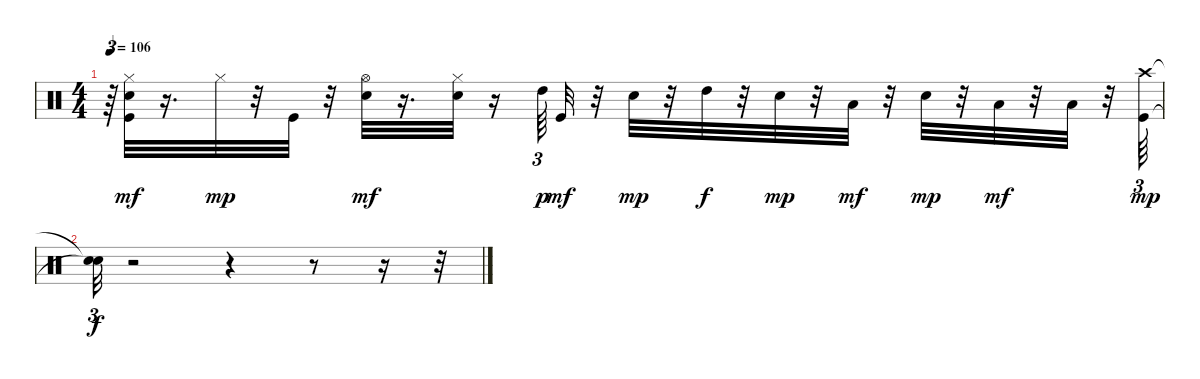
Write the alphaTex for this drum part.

\track "" {instrument percussion}
\staff {score}
\articulation defaults
\ts (4 4)
\tempo 106
\clef neutral
\ks c
r.64{tu (3 2) dy mf} ("Kick (hit)" "Snare (hit) 2" "Hi-Hat (closed)").32 r.16{d} "Hi-Hat (closed)".32{dy mp} r.32 "Kick (hit)".32 r.32 ("Snare (hit) 2" "Hi-Hat (open)").32{dy mf} r.16{d} ("Snare (hit) 2" "Hi-Hat (closed)").32 r.16 "High Tom (hit)".64{tu (3 2) dy p} "Kick (hit)".32{dy mf} r.32 "Snare (hit) 2".32{dy mp} r.32 "High Tom (hit)".32{dy f} r.32 "Snare (hit) 2".32{dy mp} r.32 "Low Tom (hit)".32{dy mf} r.32 "Snare (hit) 2".32{dy mp} r.32 "Low Floor Tom (hit)".32{dy mf} r.32 "Low Floor Tom (hit)".32 r.32 ("Kick (hit)" "Crash high (hit)").64{tu (3 2) dy mp} |
("Snare (hit)"{t} "Snare (hit)"{t}).32{tu (3 2) dy f} r.2 r.4 r.8 r.16 r.32
